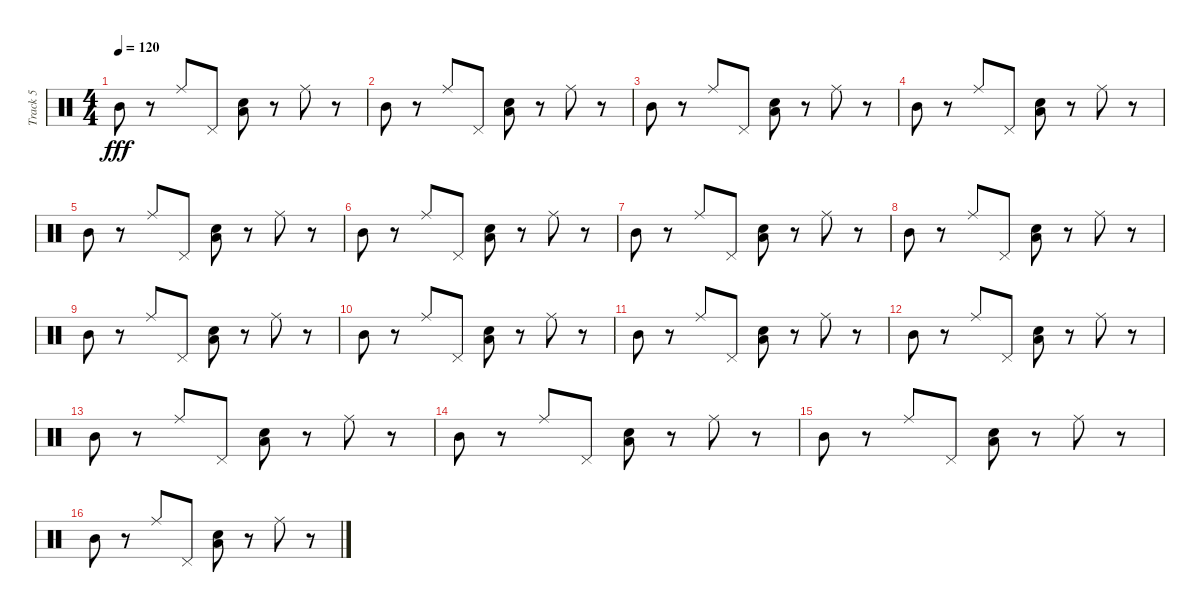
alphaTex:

\track ("Track 5" "Track 5") {instrument percussion}
\staff {score}
\articulation defaults
\ts (4 4)
\tempo 120
\clef neutral
\ks c "Mid Tom (hit)".8{dy fff}
r.8 "Ride (middle)".8 "Pedal Hi-Hat (hit)".8 ("Low Tom (hit)" "Snare (hit) 2").8 r.8 "Ride (middle)".8 r.8 |
"Mid Tom (hit)".8 r.8 "Ride (middle)".8 "Pedal Hi-Hat (hit)".8 ("Low Tom (hit)" "Snare (hit) 2").8 r.8 "Ride (middle)".8 r.8 |
"Mid Tom (hit)".8 r.8 "Ride (middle)".8 "Pedal Hi-Hat (hit)".8 ("Low Tom (hit)" "Snare (hit) 2").8 r.8 "Ride (middle)".8 r.8 |
"Mid Tom (hit)".8 r.8 "Ride (middle)".8 "Pedal Hi-Hat (hit)".8 ("Low Tom (hit)" "Snare (hit) 2").8 r.8 "Ride (middle)".8 r.8 |
"Mid Tom (hit)".8 r.8 "Ride (middle)".8 "Pedal Hi-Hat (hit)".8 ("Low Tom (hit)" "Snare (hit) 2").8 r.8 "Ride (middle)".8 r.8 |
"Mid Tom (hit)".8 r.8 "Ride (middle)".8 "Pedal Hi-Hat (hit)".8 ("Low Tom (hit)" "Snare (hit) 2").8 r.8 "Ride (middle)".8 r.8 |
"Mid Tom (hit)".8 r.8 "Ride (middle)".8 "Pedal Hi-Hat (hit)".8 ("Low Tom (hit)" "Snare (hit) 2").8 r.8 "Ride (middle)".8 r.8 |
"Mid Tom (hit)".8 r.8 "Ride (middle)".8 "Pedal Hi-Hat (hit)".8 ("Low Tom (hit)" "Snare (hit) 2").8 r.8 "Ride (middle)".8 r.8 |
"Mid Tom (hit)".8 r.8 "Ride (middle)".8 "Pedal Hi-Hat (hit)".8 ("Low Tom (hit)" "Snare (hit) 2").8 r.8 "Ride (middle)".8 r.8 |
"Mid Tom (hit)".8 r.8 "Ride (middle)".8 "Pedal Hi-Hat (hit)".8 ("Low Tom (hit)" "Snare (hit) 2").8 r.8 "Ride (middle)".8 r.8 |
"Mid Tom (hit)".8 r.8 "Ride (middle)".8 "Pedal Hi-Hat (hit)".8 ("Low Tom (hit)" "Snare (hit) 2").8 r.8 "Ride (middle)".8 r.8 |
"Mid Tom (hit)".8 r.8 "Ride (middle)".8 "Pedal Hi-Hat (hit)".8 ("Low Tom (hit)" "Snare (hit) 2").8 r.8 "Ride (middle)".8 r.8 |
"Mid Tom (hit)".8 r.8 "Ride (middle)".8 "Pedal Hi-Hat (hit)".8 ("Low Tom (hit)" "Snare (hit) 2").8 r.8 "Ride (middle)".8 r.8 |
"Mid Tom (hit)".8 r.8 "Ride (middle)".8 "Pedal Hi-Hat (hit)".8 ("Low Tom (hit)" "Snare (hit) 2").8 r.8 "Ride (middle)".8 r.8 |
"Mid Tom (hit)".8 r.8 "Ride (middle)".8 "Pedal Hi-Hat (hit)".8 ("Low Tom (hit)" "Snare (hit) 2").8 r.8 "Ride (middle)".8 r.8 |
"Mid Tom (hit)".8 r.8 "Ride (middle)".8 "Pedal Hi-Hat (hit)".8 ("Low Tom (hit)" "Snare (hit) 2").8 r.8 "Ride (middle)".8 r.8
